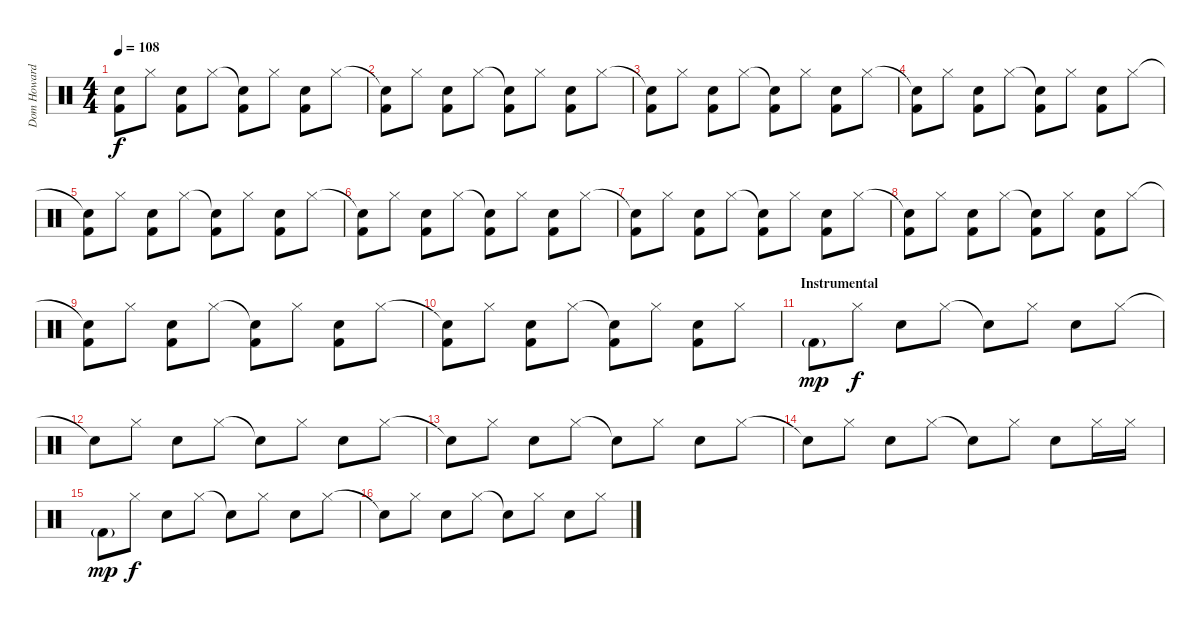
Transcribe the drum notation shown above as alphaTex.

\track ("Dom Howard" "Dom Howard") {instrument percussion}
\staff {score}
\articulation defaults
\ts (4 4)
\tempo 108
\clef neutral
\ks c
("Snare (hit)"{t} "Kick (hit) 2").8{dy f} "Hi-Hat (closed)".8 ("Electric Snare (hit)" "Kick (hit) 2").8 "Hi-Hat (closed)".8 ("Snare (hit)"{t} "Kick (hit) 2").8 "Hi-Hat (closed)".8 ("Electric Snare (hit)" "Kick (hit) 2").8 "Hi-Hat (closed)".8 |
("Snare (hit)"{t} "Kick (hit) 2").8 "Hi-Hat (closed)".8 ("Electric Snare (hit)" "Kick (hit) 2").8 "Hi-Hat (closed)".8 ("Snare (hit)"{t} "Kick (hit) 2").8 "Hi-Hat (closed)".8 ("Electric Snare (hit)" "Kick (hit) 2").8 "Hi-Hat (closed)".8 |
("Snare (hit)"{t} "Kick (hit) 2").8 "Hi-Hat (closed)".8 ("Electric Snare (hit)" "Kick (hit) 2").8 "Hi-Hat (closed)".8 ("Snare (hit)"{t} "Kick (hit) 2").8 "Hi-Hat (closed)".8 ("Electric Snare (hit)" "Kick (hit) 2").8 "Hi-Hat (closed)".8 |
("Snare (hit)"{t} "Kick (hit) 2").8 "Hi-Hat (closed)".8 ("Electric Snare (hit)" "Kick (hit) 2").8 "Hi-Hat (closed)".8 ("Snare (hit)"{t} "Kick (hit) 2").8 "Hi-Hat (closed)".8 ("Electric Snare (hit)" "Kick (hit) 2").8 "Hi-Hat (closed)".8 |
("Snare (hit)"{t} "Kick (hit) 2").8 "Hi-Hat (closed)".8 ("Electric Snare (hit)" "Kick (hit) 2").8 "Hi-Hat (closed)".8 ("Snare (hit)"{t} "Kick (hit) 2").8 "Hi-Hat (closed)".8 ("Electric Snare (hit)" "Kick (hit) 2").8 "Hi-Hat (closed)".8 |
("Snare (hit)"{t} "Kick (hit) 2").8 "Hi-Hat (closed)".8 ("Electric Snare (hit)" "Kick (hit) 2").8 "Hi-Hat (closed)".8 ("Snare (hit)"{t} "Kick (hit) 2").8 "Hi-Hat (closed)".8 ("Electric Snare (hit)" "Kick (hit) 2").8 "Hi-Hat (closed)".8 |
("Snare (hit)"{t} "Kick (hit) 2").8 "Hi-Hat (closed)".8 ("Electric Snare (hit)" "Kick (hit) 2").8 "Hi-Hat (closed)".8 ("Snare (hit)"{t} "Kick (hit) 2").8 "Hi-Hat (closed)".8 ("Electric Snare (hit)" "Kick (hit) 2").8 "Hi-Hat (closed)".8 |
("Snare (hit)"{t} "Kick (hit) 2").8 "Hi-Hat (closed)".8 ("Electric Snare (hit)" "Kick (hit) 2").8 "Hi-Hat (closed)".8 ("Snare (hit)"{t} "Kick (hit) 2").8 "Hi-Hat (closed)".8 ("Electric Snare (hit)" "Kick (hit) 2").8 "Hi-Hat (closed)".8 |
("Snare (hit)"{t} "Kick (hit) 2").8 "Hi-Hat (closed)".8 ("Electric Snare (hit)" "Kick (hit) 2").8 "Hi-Hat (closed)".8 ("Snare (hit)"{t} "Kick (hit) 2").8 "Hi-Hat (closed)".8 ("Electric Snare (hit)" "Kick (hit) 2").8 "Hi-Hat (closed)".8 |
("Snare (hit)"{t} "Kick (hit) 2").8 "Hi-Hat (closed)".8 ("Electric Snare (hit)" "Kick (hit) 2").8 "Hi-Hat (closed)".8 ("Snare (hit)"{t} "Kick (hit) 2").8 "Hi-Hat (closed)".8 ("Electric Snare (hit)" "Kick (hit) 2").8 "Hi-Hat (closed)".8 |
\section ("" "Instrumental")
"Kick (hit) 2"{g}.8{dy mp} "Hi-Hat (closed)".8{dy f} "Electric Snare (hit)".8 "Hi-Hat (closed)".8 "Snare (hit)"{t}.8 "Hi-Hat (closed)".8 "Electric Snare (hit)".8 "Hi-Hat (closed)".8 |
"Snare (hit)"{t}.8 "Hi-Hat (closed)".8 "Electric Snare (hit)".8 "Hi-Hat (closed)".8 "Snare (hit)"{t}.8 "Hi-Hat (closed)".8 "Electric Snare (hit)".8 "Hi-Hat (closed)".8 |
"Snare (hit)"{t}.8 "Hi-Hat (closed)".8 "Electric Snare (hit)".8 "Hi-Hat (closed)".8 "Snare (hit)"{t}.8 "Hi-Hat (closed)".8 "Electric Snare (hit)".8 "Hi-Hat (closed)".8 |
"Snare (hit)"{t}.8 "Hi-Hat (closed)".8 "Electric Snare (hit)".8 "Hi-Hat (closed)".8 "Snare (hit)"{t}.8 "Hi-Hat (closed)".8 "Electric Snare (hit)".8 "Hi-Hat (closed)".16 "Hi-Hat (closed)".16 |
"Kick (hit) 2"{g}.8{dy mp} "Hi-Hat (closed)".8{dy f} "Electric Snare (hit)".8 "Hi-Hat (closed)".8 "Snare (hit)"{t}.8 "Hi-Hat (closed)".8 "Electric Snare (hit)".8 "Hi-Hat (closed)".8 |
"Snare (hit)"{t}.8 "Hi-Hat (closed)".8 "Electric Snare (hit)".8 "Hi-Hat (closed)".8 "Snare (hit)"{t}.8 "Hi-Hat (closed)".8 "Electric Snare (hit)".8 "Hi-Hat (closed)".8
